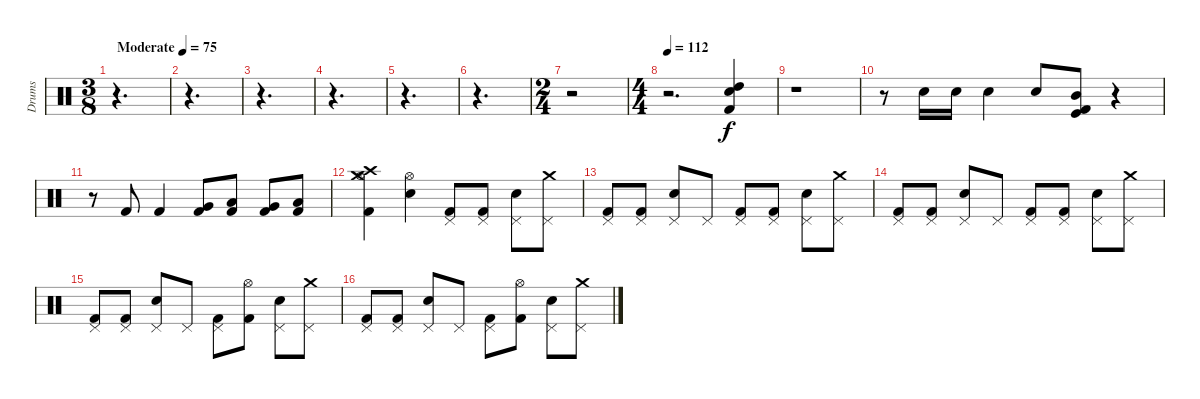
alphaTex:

\track ("Drums" "Drums") {instrument percussion}
\staff {score}
\articulation defaults
\ts (3 8)
\tempo (75 "Moderate")
\clef neutral
\ks c
r.4{d dy f} |
r.4{d} |
r.4{d} |
r.4{d} |
r.4{d} |
r.4{d} |
\ts (2 4)
r.2 |
\ts (4 4)
\tempo 112
r.2{d} ("Snare (hit) 2" "High Tom (hit)" "Kick (hit) 2").4 |
r.1 |
r.8 "Snare (hit) 2".16 "Snare (hit) 2".16 "Snare (hit) 2".4 "Snare (hit) 2".8 ("Kick (hit)" "Kick (hit) 2" "Mid Tom (hit)").8 r.4 |
r.8 "Kick (hit) 2".8 "Kick (hit) 2".4 ("Very Low Tom (hit)" "Kick (hit) 2").8 ("Low Floor Tom (hit)" "Kick (hit) 2").8 ("Very Low Tom (hit)" "Kick (hit) 2").8 ("Low Floor Tom (hit)" "Kick (hit) 2").8 |
("Hi-Hat (open)" "Kick (hit) 2" "Crash high (hit)" "Crash medium (hit)").4 ("Hi-Hat (open)" "Snare (hit) 2").4 ("Pedal Hi-Hat (hit)" "Kick (hit) 2").8 ("Pedal Hi-Hat (hit)" "Kick (hit) 2").8 ("Pedal Hi-Hat (hit)" "Snare (hit) 2").8 ("Pedal Hi-Hat (hit)" "Crash medium (hit)").8 |
("Pedal Hi-Hat (hit)" "Kick (hit) 2").8 ("Pedal Hi-Hat (hit)" "Kick (hit) 2").8 ("Pedal Hi-Hat (hit)" "Snare (hit) 2").8 "Pedal Hi-Hat (hit)".8 ("Pedal Hi-Hat (hit)" "Kick (hit) 2").8 ("Pedal Hi-Hat (hit)" "Kick (hit) 2").8 ("Pedal Hi-Hat (hit)" "Snare (hit) 2").8 ("Pedal Hi-Hat (hit)" "Crash medium (hit)").8 |
("Pedal Hi-Hat (hit)" "Kick (hit) 2").8 ("Pedal Hi-Hat (hit)" "Kick (hit) 2").8 ("Pedal Hi-Hat (hit)" "Snare (hit) 2").8 "Pedal Hi-Hat (hit)".8 ("Pedal Hi-Hat (hit)" "Kick (hit) 2").8 ("Pedal Hi-Hat (hit)" "Kick (hit) 2").8 ("Pedal Hi-Hat (hit)" "Snare (hit) 2").8 ("Pedal Hi-Hat (hit)" "Crash medium (hit)").8 |
("Pedal Hi-Hat (hit)" "Kick (hit) 2").8 ("Pedal Hi-Hat (hit)" "Kick (hit) 2").8 ("Pedal Hi-Hat (hit)" "Snare (hit) 2").8 "Pedal Hi-Hat (hit)".8 ("Pedal Hi-Hat (hit)" "Kick (hit) 2").8 ("Hi-Hat (open)" "Kick (hit) 2").8 ("Pedal Hi-Hat (hit)" "Snare (hit) 2").8 ("Pedal Hi-Hat (hit)" "Crash medium (hit)").8 |
("Pedal Hi-Hat (hit)" "Kick (hit) 2").8 ("Pedal Hi-Hat (hit)" "Kick (hit) 2").8 ("Pedal Hi-Hat (hit)" "Snare (hit) 2").8 "Pedal Hi-Hat (hit)".8 ("Pedal Hi-Hat (hit)" "Kick (hit) 2").8 ("Hi-Hat (open)" "Kick (hit) 2").8 ("Pedal Hi-Hat (hit)" "Snare (hit) 2").8 ("Pedal Hi-Hat (hit)" "Crash medium (hit)").8
